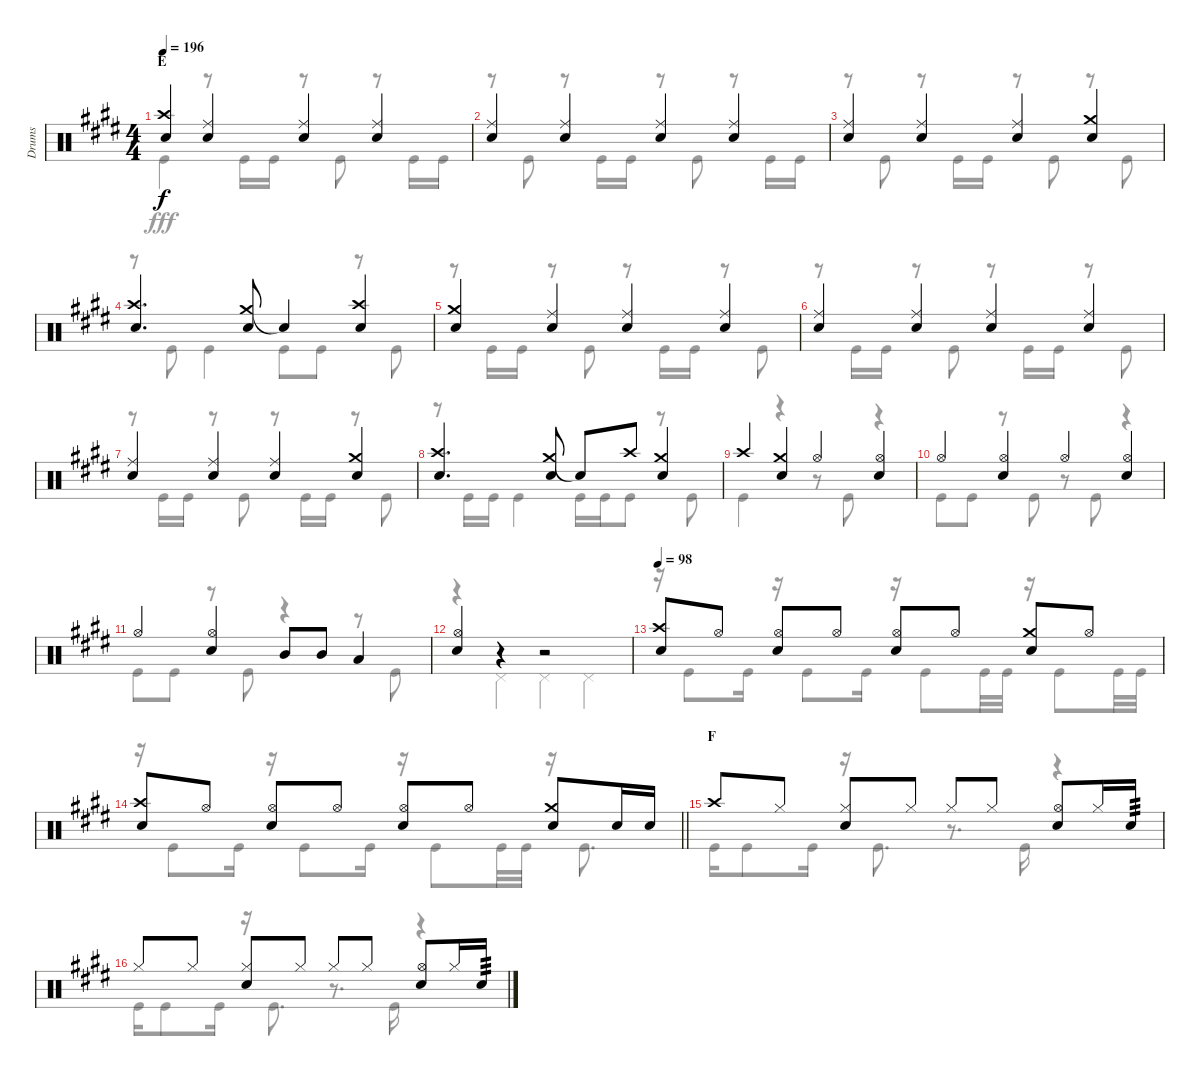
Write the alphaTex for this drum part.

\track ("Drums" "Drums") {instrument percussion}
\staff {score}
\articulation defaults
\voice
\ts (4 4)
\section ("" "E")
\tempo 196
\clef neutral
\ks e
("Crash high (hit)" "Snare (hit) 2").4{dy f} ("Ride (middle)" "Snare (hit) 2").4 ("Ride (middle)" "Snare (hit) 2").4 ("Ride (middle)" "Snare (hit) 2").4 |
("Ride (middle)" "Snare (hit) 2").4 ("Ride (middle)" "Snare (hit) 2").4 ("Ride (middle)" "Snare (hit) 2").4 ("Ride (middle)" "Snare (hit) 2").4 |
("Ride (middle)" "Snare (hit) 2").4 ("Ride (middle)" "Snare (hit) 2").4 ("Ride (middle)" "Snare (hit) 2").4 ("Crash medium (hit)" "Snare (hit) 2").4 |
("Crash high (hit)" "Snare (hit) 2").4{d} ("Crash medium (hit)" "Snare (hit) 2").8 "Snare (hit)"{t}.4 ("Crash high (hit)" "Snare (hit) 2").4 |
("Crash medium (hit)" "Snare (hit) 2").4 ("Ride (middle)" "Snare (hit) 2").4 ("Ride (middle)" "Snare (hit) 2").4 ("Ride (middle)" "Snare (hit) 2").4 |
("Ride (middle)" "Snare (hit) 2").4 ("Ride (middle)" "Snare (hit) 2").4 ("Ride (middle)" "Snare (hit) 2").4 ("Ride (middle)" "Snare (hit) 2").4 |
("Ride (middle)" "Snare (hit) 2").4 ("Ride (middle)" "Snare (hit) 2").4 ("Ride (middle)" "Snare (hit) 2").4 ("Crash medium (hit)" "Snare (hit) 2").4 |
("Crash high (hit)" "Snare (hit) 2").4{d} ("Crash medium (hit)" "Snare (hit) 2").8 "Snare (hit)"{t}.8 "Crash high (hit)".8 ("Crash medium (hit)" "Snare (hit) 2").4 |
"Crash high (hit)".4 ("Crash medium (hit)" "Snare (hit) 2").4 "Hi-Hat (open)".4 ("Hi-Hat (open)" "Snare (hit) 2").4 |
"Hi-Hat (open)".4 ("Hi-Hat (open)" "Snare (hit) 2").4 "Hi-Hat (open)".4 ("Hi-Hat (open)" "Snare (hit) 2").4 |
"Hi-Hat (open)".4 ("Hi-Hat (open)" "Snare (hit) 2").4 "Mid Tom (hit)".8 "Mid Tom (hit)".8 "Low Tom (hit)".4 |
("Hi-Hat (open)" "Snare (hit) 2").4 r.4 r.2 |
\tempo 98
("Crash high (hit)" "Snare (hit) 2").8 "Hi-Hat (open)".8 ("Hi-Hat (open)" "Snare (hit) 2").8 "Hi-Hat (open)".8 ("Hi-Hat (open)" "Snare (hit) 2").8 "Hi-Hat (open)".8 ("Crash medium (hit)" "Snare (hit) 2").8 "Hi-Hat (open)".8 |
\barLineRight lightlight
("Crash high (hit)" "Snare (hit) 2").8 "Hi-Hat (open)".8 ("Hi-Hat (open)" "Snare (hit) 2").8 "Hi-Hat (open)".8 ("Hi-Hat (open)" "Snare (hit) 2").8 "Hi-Hat (open)".8 ("Crash medium (hit)" "Snare (hit) 2").8 "Snare (hit) 2".16 "Snare (hit) 2".16 |
\section ("" "F")
"Crash high (hit)".8 "Hi-Hat (closed)".8 ("Hi-Hat (closed)" "Snare (hit) 2").8 "Hi-Hat (closed)".8 "Hi-Hat (closed)".8 "Hi-Hat (closed)".8 ("Hi-Hat (open)" "Snare (hit) 2").8 "Hi-Hat (closed)".16 "Snare (hit) 2".16{tp 3} |
"Hi-Hat (closed)".8 "Hi-Hat (closed)".8 ("Hi-Hat (closed)" "Snare (hit) 2").8 "Hi-Hat (closed)".8 "Hi-Hat (closed)".8 "Hi-Hat (closed)".8 ("Hi-Hat (open)" "Snare (hit) 2").8 "Hi-Hat (closed)".16 "Snare (hit) 2".16{tp 3}
\voice
\clef neutral
\ottava regular
\simile none
\ks e "Kick (hit)".4{dy fff}
r.8 "Kick (hit)".16 "Kick (hit)".16 r.8 "Kick (hit)".8 r.8 "Kick (hit)".16 "Kick (hit)".16 |
r.8 "Kick (hit)".8 r.8 "Kick (hit)".16 "Kick (hit)".16 r.8 "Kick (hit)".8 r.8 "Kick (hit)".16 "Kick (hit)".16 |
r.8 "Kick (hit)".8 r.8 "Kick (hit)".16 "Kick (hit)".16 r.8 "Kick (hit)".8 r.8 "Kick (hit)".8 |
r.8 "Kick (hit)".8 "Kick (hit)".4 "Kick (hit)".8 "Kick (hit)".8 r.8 "Kick (hit)".8 |
r.8 "Kick (hit)".16 "Kick (hit)".16 r.8 "Kick (hit)".8 r.8 "Kick (hit)".16 "Kick (hit)".16 r.8 "Kick (hit)".8 |
r.8 "Kick (hit)".16 "Kick (hit)".16 r.8 "Kick (hit)".8 r.8 "Kick (hit)".16 "Kick (hit)".16 r.8 "Kick (hit)".8 |
r.8 "Kick (hit)".16 "Kick (hit)".16 r.8 "Kick (hit)".8 r.8 "Kick (hit)".16 "Kick (hit)".16 r.8 "Kick (hit)".8 |
r.8 "Kick (hit)".16 "Kick (hit)".16 "Kick (hit)".4 "Kick (hit)".16 "Kick (hit)".16 "Kick (hit)".8 r.8 "Kick (hit)".8 |
"Kick (hit)".4 r.4 r.8 "Kick (hit)".8 r.4 |
"Kick (hit)".8 "Kick (hit)".8 r.8 "Kick (hit)".8 r.8 "Kick (hit)".8 r.4 |
"Kick (hit)".8 "Kick (hit)".8 r.8 "Kick (hit)".8 r.4 r.8 "Kick (hit)".8 |
r.4 "Pedal Hi-Hat (hit)".4 "Pedal Hi-Hat (hit)".4 "Pedal Hi-Hat (hit)".4 |
r.16 "Kick (hit)".8 "Kick (hit)".16 r.16 "Kick (hit)".8 "Kick (hit)".16 r.16 "Kick (hit)".8 "Kick (hit)".32 "Kick (hit)".32 r.16 "Kick (hit)".8 "Kick (hit)".32 "Kick (hit)".32 |
\barLineRight lightlight
r.16 "Kick (hit)".8 "Kick (hit)".16 r.16 "Kick (hit)".8 "Kick (hit)".16 r.16 "Kick (hit)".8 "Kick (hit)".32 "Kick (hit)".32 r.16 "Kick (hit)".8{d} |
"Kick (hit)".16 "Kick (hit)".8 "Kick (hit)".16 r.16 "Kick (hit)".8{d} r.8{d} "Kick (hit)".16 r.4 |
"Kick (hit)".16 "Kick (hit)".8 "Kick (hit)".16 r.16 "Kick (hit)".8{d} r.8{d} "Kick (hit)".16 r.4
